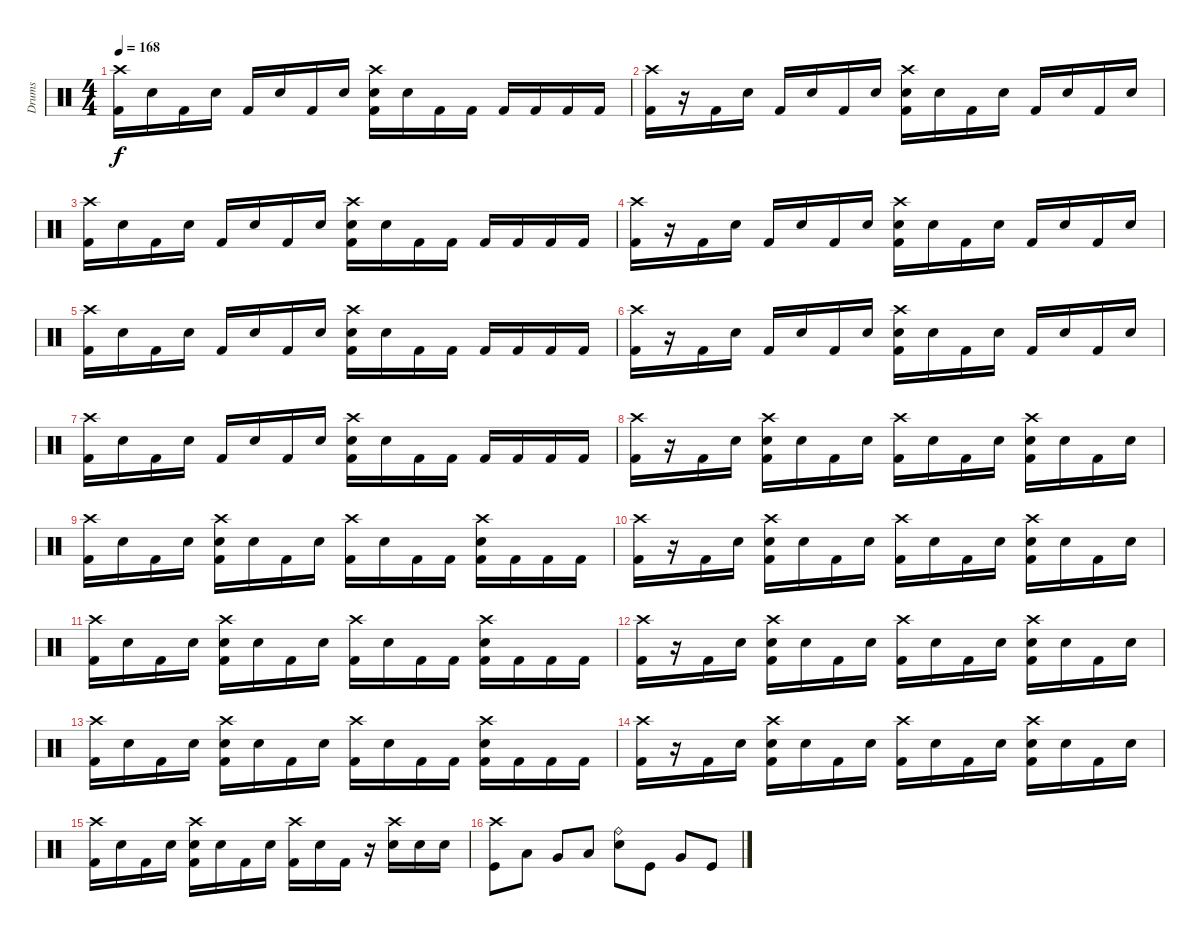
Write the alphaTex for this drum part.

\track ("Drums" "Drums") {instrument percussion}
\staff {score}
\articulation defaults
\ts (4 4)
\tempo 168
\clef neutral
\ks c
("Crash high (hit)" "Kick (hit) 2").16{dy f} "Snare (hit)".16 "Kick (hit) 2".16 "Snare (hit)".16 "Kick (hit) 2".16 "Snare (hit)".16 "Kick (hit) 2".16 "Snare (hit)".16 ("Crash high (hit)" "Electric Snare (hit)" "Kick (hit) 2").16 "Snare (hit)".16 "Kick (hit) 2".16 "Kick (hit) 2".16 "Kick (hit) 2".16 "Kick (hit) 2".16 "Kick (hit) 2".16 "Kick (hit) 2".16 |
("Crash high (hit)" "Kick (hit) 2").16 r.16 "Kick (hit) 2".16 "Snare (hit)".16 "Kick (hit) 2".16 "Snare (hit)".16 "Kick (hit) 2".16 "Snare (hit)".16 ("Crash high (hit)" "Electric Snare (hit)" "Kick (hit) 2").16 "Snare (hit)".16 "Kick (hit) 2".16 "Snare (hit)".16 "Kick (hit) 2".16 "Snare (hit)".16 "Kick (hit) 2".16 "Snare (hit)".16 |
("Crash high (hit)" "Kick (hit) 2").16 "Snare (hit)".16 "Kick (hit) 2".16 "Snare (hit)".16 "Kick (hit) 2".16 "Snare (hit)".16 "Kick (hit) 2".16 "Snare (hit)".16 ("Crash high (hit)" "Electric Snare (hit)" "Kick (hit) 2").16 "Snare (hit)".16 "Kick (hit) 2".16 "Kick (hit) 2".16 "Kick (hit) 2".16 "Kick (hit) 2".16 "Kick (hit) 2".16 "Kick (hit) 2".16 |
("Crash high (hit)" "Kick (hit) 2").16 r.16 "Kick (hit) 2".16 "Snare (hit)".16 "Kick (hit) 2".16 "Snare (hit)".16 "Kick (hit) 2".16 "Snare (hit)".16 ("Crash high (hit)" "Electric Snare (hit)" "Kick (hit) 2").16 "Snare (hit)".16 "Kick (hit) 2".16 "Snare (hit)".16 "Kick (hit) 2".16 "Snare (hit)".16 "Kick (hit) 2".16 "Snare (hit)".16 |
("Crash high (hit)" "Kick (hit) 2").16 "Snare (hit)".16 "Kick (hit) 2".16 "Snare (hit)".16 "Kick (hit) 2".16 "Snare (hit)".16 "Kick (hit) 2".16 "Snare (hit)".16 ("Crash high (hit)" "Electric Snare (hit)" "Kick (hit) 2").16 "Snare (hit)".16 "Kick (hit) 2".16 "Kick (hit) 2".16 "Kick (hit) 2".16 "Kick (hit) 2".16 "Kick (hit) 2".16 "Kick (hit) 2".16 |
("Crash high (hit)" "Kick (hit) 2").16 r.16 "Kick (hit) 2".16 "Snare (hit)".16 "Kick (hit) 2".16 "Snare (hit)".16 "Kick (hit) 2".16 "Snare (hit)".16 ("Crash high (hit)" "Electric Snare (hit)" "Kick (hit) 2").16 "Snare (hit)".16 "Kick (hit) 2".16 "Snare (hit)".16 "Kick (hit) 2".16 "Snare (hit)".16 "Kick (hit) 2".16 "Snare (hit)".16 |
("Crash high (hit)" "Kick (hit) 2").16 "Snare (hit)".16 "Kick (hit) 2".16 "Snare (hit)".16 "Kick (hit) 2".16 "Snare (hit)".16 "Kick (hit) 2".16 "Snare (hit)".16 ("Crash high (hit)" "Electric Snare (hit)" "Kick (hit) 2").16 "Snare (hit)".16 "Kick (hit) 2".16 "Kick (hit) 2".16 "Kick (hit) 2".16 "Kick (hit) 2".16 "Kick (hit) 2".16 "Kick (hit) 2".16 |
("Crash high (hit)" "Kick (hit) 2").16 r.16 "Kick (hit) 2".16 "Snare (hit)".16 ("Crash high (hit)" "Electric Snare (hit)" "Kick (hit) 2").16 "Snare (hit)".16 "Kick (hit) 2".16 "Snare (hit)".16 ("Crash high (hit)" "Kick (hit) 2").16 "Snare (hit)".16 "Kick (hit) 2".16 "Snare (hit)".16 ("Crash high (hit)" "Electric Snare (hit)" "Kick (hit) 2").16 "Snare (hit)".16 "Kick (hit) 2".16 "Snare (hit)".16 |
("Crash high (hit)" "Kick (hit) 2").16 "Snare (hit)".16 "Kick (hit) 2".16 "Snare (hit)".16 ("Crash high (hit)" "Electric Snare (hit)" "Kick (hit) 2").16 "Snare (hit)".16 "Kick (hit) 2".16 "Snare (hit)".16 ("Crash high (hit)" "Kick (hit) 2").16 "Snare (hit)".16 "Kick (hit) 2".16 "Kick (hit) 2".16 ("Crash high (hit)" "Electric Snare (hit)" "Kick (hit) 2").16 "Kick (hit) 2".16 "Kick (hit) 2".16 "Kick (hit) 2".16 |
("Crash high (hit)" "Kick (hit) 2").16 r.16 "Kick (hit) 2".16 "Snare (hit)".16 ("Crash high (hit)" "Electric Snare (hit)" "Kick (hit) 2").16 "Snare (hit)".16 "Kick (hit) 2".16 "Snare (hit)".16 ("Crash high (hit)" "Kick (hit) 2").16 "Snare (hit)".16 "Kick (hit) 2".16 "Snare (hit)".16 ("Crash high (hit)" "Electric Snare (hit)" "Kick (hit) 2").16 "Snare (hit)".16 "Kick (hit) 2".16 "Snare (hit)".16 |
("Crash high (hit)" "Kick (hit) 2").16 "Snare (hit)".16 "Kick (hit) 2".16 "Snare (hit)".16 ("Crash high (hit)" "Electric Snare (hit)" "Kick (hit) 2").16 "Snare (hit)".16 "Kick (hit) 2".16 "Snare (hit)".16 ("Crash high (hit)" "Kick (hit) 2").16 "Snare (hit)".16 "Kick (hit) 2".16 "Kick (hit) 2".16 ("Crash high (hit)" "Electric Snare (hit)" "Kick (hit) 2").16 "Kick (hit) 2".16 "Kick (hit) 2".16 "Kick (hit) 2".16 |
("Crash high (hit)" "Kick (hit) 2").16 r.16 "Kick (hit) 2".16 "Snare (hit)".16 ("Crash high (hit)" "Electric Snare (hit)" "Kick (hit) 2").16 "Snare (hit)".16 "Kick (hit) 2".16 "Snare (hit)".16 ("Crash high (hit)" "Kick (hit) 2").16 "Snare (hit)".16 "Kick (hit) 2".16 "Snare (hit)".16 ("Crash high (hit)" "Electric Snare (hit)" "Kick (hit) 2").16 "Snare (hit)".16 "Kick (hit) 2".16 "Snare (hit)".16 |
("Crash high (hit)" "Kick (hit) 2").16 "Snare (hit)".16 "Kick (hit) 2".16 "Snare (hit)".16 ("Crash high (hit)" "Electric Snare (hit)" "Kick (hit) 2").16 "Snare (hit)".16 "Kick (hit) 2".16 "Snare (hit)".16 ("Crash high (hit)" "Kick (hit) 2").16 "Snare (hit)".16 "Kick (hit) 2".16 "Kick (hit) 2".16 ("Crash high (hit)" "Electric Snare (hit)" "Kick (hit) 2").16 "Kick (hit) 2".16 "Kick (hit) 2".16 "Kick (hit) 2".16 |
("Crash high (hit)" "Kick (hit) 2").16 r.16 "Kick (hit) 2".16 "Snare (hit)".16 ("Crash high (hit)" "Electric Snare (hit)" "Kick (hit) 2").16 "Snare (hit)".16 "Kick (hit) 2".16 "Snare (hit)".16 ("Crash high (hit)" "Kick (hit) 2").16 "Snare (hit)".16 "Kick (hit) 2".16 "Snare (hit)".16 ("Crash high (hit)" "Electric Snare (hit)" "Kick (hit) 2").16 "Snare (hit)".16 "Kick (hit) 2".16 "Snare (hit)".16 |
("Crash high (hit)" "Kick (hit) 2").16 "Snare (hit)".16 "Kick (hit) 2".16 "Snare (hit)".16 ("Crash high (hit)" "Electric Snare (hit)" "Kick (hit) 2").16 "Snare (hit)".16 "Kick (hit) 2".16 "Snare (hit)".16 ("Crash high (hit)" "Kick (hit) 2").16 "Snare (hit)".16 "Kick (hit) 2".16 r.16 ("Crash high (hit)" "Electric Snare (hit)").16 "Electric Snare (hit)".16 "Electric Snare (hit)".16 |
("Crash high (hit)" "Kick (hit)").8 "Low Tom (hit)".8 "Very Low Tom (hit)".8 "Low Floor Tom (hit)".8 ("Ride (bell)" "Electric Snare (hit)").8 "Kick (hit)".8 "Very Low Tom (hit)".8 "Kick (hit)".8
